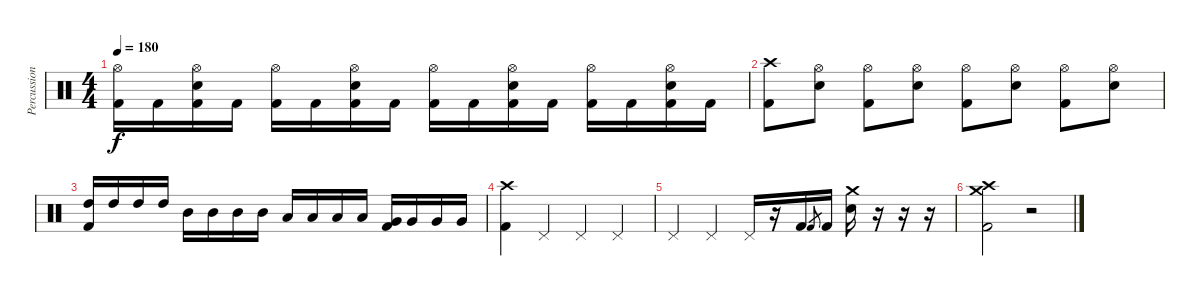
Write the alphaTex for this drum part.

\track ("Percussion" "Percussion") {instrument percussion}
\staff {score}
\articulation defaults
\ts (4 4)
\tempo 180
\clef neutral
\ks c
("Hi-Hat (open)" "Kick (hit) 2").16{dy f} "Kick (hit) 2".16 ("Hi-Hat (open)" "Snare (hit) 2" "Kick (hit) 2").16 "Kick (hit) 2".16 ("Hi-Hat (open)" "Kick (hit) 2").16 "Kick (hit) 2".16 ("Hi-Hat (open)" "Snare (hit) 2" "Kick (hit) 2").16 "Kick (hit) 2".16 ("Hi-Hat (open)" "Kick (hit) 2").16 "Kick (hit) 2".16 ("Hi-Hat (open)" "Snare (hit) 2" "Kick (hit) 2").16 "Kick (hit) 2".16 ("Hi-Hat (open)" "Kick (hit) 2").16 "Kick (hit) 2".16 ("Hi-Hat (open)" "Snare (hit) 2" "Kick (hit) 2").16 "Kick (hit) 2".16 |
("Crash high (hit)" "Kick (hit) 2").8 ("Hi-Hat (open)" "Snare (hit) 2").8 ("Hi-Hat (open)" "Kick (hit) 2").8 ("Hi-Hat (open)" "Snare (hit) 2").8 ("Hi-Hat (open)" "Kick (hit) 2").8 ("Hi-Hat (open)" "Snare (hit) 2").8 ("Hi-Hat (open)" "Kick (hit) 2").8 ("Hi-Hat (open)" "Snare (hit) 2").8 |
("High Tom (hit)" "Kick (hit) 2").16 "High Tom (hit)".16 "High Tom (hit)".16 "High Tom (hit)".16 "Mid Tom (hit)".16 "Mid Tom (hit)".16 "Mid Tom (hit)".16 "Mid Tom (hit)".16 "Low Tom (hit)".16 "Low Tom (hit)".16 "Low Tom (hit)".16 "Low Tom (hit)".16 ("Very Low Tom (hit)" "Kick (hit) 2").16 "Very Low Tom (hit)".16 "Very Low Tom (hit)".16 "Very Low Tom (hit)".16 |
("Crash high (hit)" "Kick (hit) 2").4 "Pedal Hi-Hat (hit)".4 "Pedal Hi-Hat (hit)".4 "Pedal Hi-Hat (hit)".4 |
"Pedal Hi-Hat (hit)".4 "Pedal Hi-Hat (hit)".4 "Pedal Hi-Hat (hit)".16 r.16 "Kick (hit) 2".16 "Kick (hit) 2".8{gr} "Kick (hit) 2".16 ("Crash medium (hit)" "Snare (hit) 2").16 r.16 r.16 r.16 |
("Crash high (hit)" "Crash medium (hit)" "Kick (hit) 2").2 r.2
